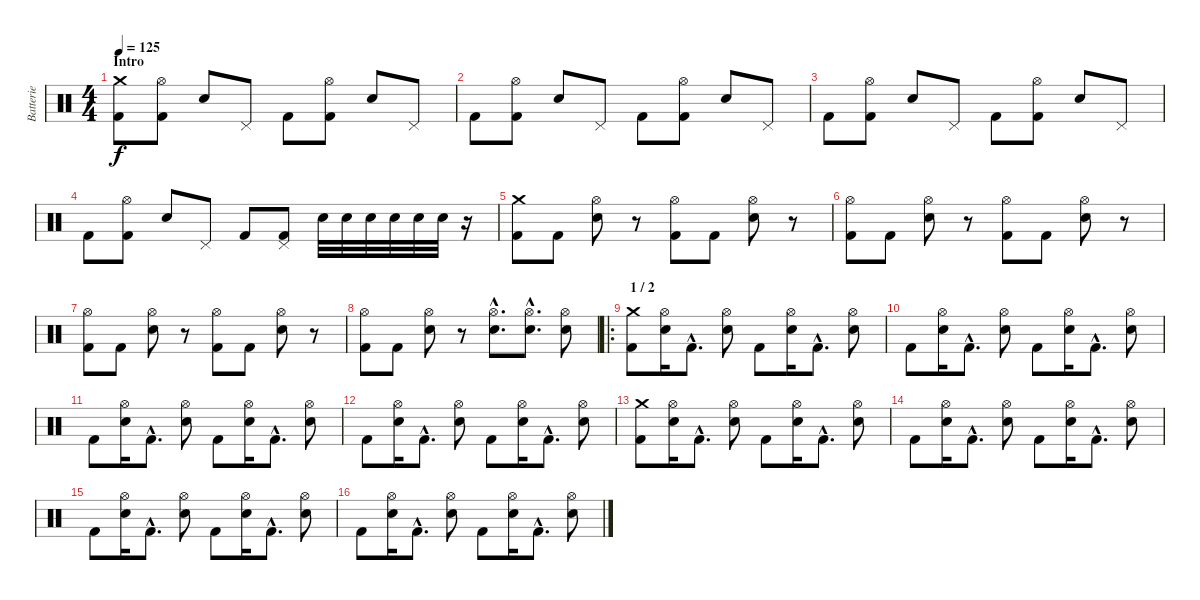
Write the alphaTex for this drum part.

\track ("Batterie" "Batterie") {instrument percussion}
\staff {score}
\articulation defaults
\ts (4 4)
\section ("" "Intro")
\tempo 125
\clef neutral
\ks c
("Crash medium (hit)" "Kick (hit) 2").8{dy f} ("Hi-Hat (open)" "Kick (hit) 2").8 "Electric Snare (hit)".8 "Pedal Hi-Hat (hit)".8 "Kick (hit) 2".8 ("Hi-Hat (open)" "Kick (hit) 2").8 "Electric Snare (hit)".8 "Pedal Hi-Hat (hit)".8 |
"Kick (hit) 2".8 ("Hi-Hat (open)" "Kick (hit) 2").8 "Electric Snare (hit)".8 "Pedal Hi-Hat (hit)".8 "Kick (hit) 2".8 ("Hi-Hat (open)" "Kick (hit) 2").8 "Electric Snare (hit)".8 "Pedal Hi-Hat (hit)".8 |
"Kick (hit) 2".8 ("Hi-Hat (open)" "Kick (hit) 2").8 "Electric Snare (hit)".8 "Pedal Hi-Hat (hit)".8 "Kick (hit) 2".8 ("Hi-Hat (open)" "Kick (hit) 2").8 "Electric Snare (hit)".8 "Pedal Hi-Hat (hit)".8 |
"Kick (hit) 2".8 ("Hi-Hat (open)" "Kick (hit) 2").8 "Electric Snare (hit)".8 "Pedal Hi-Hat (hit)".8 "Kick (hit) 2".8 ("Pedal Hi-Hat (hit)" "Kick (hit) 2").8 "Electric Snare (hit)".32 "Electric Snare (hit)".32 "Electric Snare (hit)".32 "Electric Snare (hit)".32 "Electric Snare (hit)".32 "Electric Snare (hit)".32 r.16 |
("Crash medium (hit)" "Kick (hit) 2").8 "Kick (hit) 2".8 ("Hi-Hat (open)" "Electric Snare (hit)").8 r.8 ("Hi-Hat (open)" "Kick (hit) 2").8 "Kick (hit) 2".8 ("Hi-Hat (open)" "Electric Snare (hit)").8 r.8 |
("Hi-Hat (open)" "Kick (hit) 2").8 "Kick (hit) 2".8 ("Hi-Hat (open)" "Electric Snare (hit)").8 r.8 ("Hi-Hat (open)" "Kick (hit) 2").8 "Kick (hit) 2".8 ("Hi-Hat (open)" "Electric Snare (hit)").8 r.8 |
("Hi-Hat (open)" "Kick (hit) 2").8 "Kick (hit) 2".8 ("Hi-Hat (open)" "Electric Snare (hit)").8 r.8 ("Hi-Hat (open)" "Kick (hit) 2").8 "Kick (hit) 2".8 ("Hi-Hat (open)" "Electric Snare (hit)").8 r.8 |
("Hi-Hat (open)" "Kick (hit) 2").8 "Kick (hit) 2".8 ("Hi-Hat (open)" "Electric Snare (hit)").8 r.8 ("Hi-Hat (open)"{hac} "Electric Snare (hit)"{hac}).8{d} ("Hi-Hat (open)"{hac} "Electric Snare (hit)"{hac}).8{d} ("Hi-Hat (open)" "Electric Snare (hit)").8 |
\ro
\section ("" " 1 / 2")
("Crash medium (hit)" "Kick (hit) 2").8 ("Hi-Hat (open)" "Electric Snare (hit)").16 "Kick (hit) 2"{hac}.8{d} ("Hi-Hat (open)" "Electric Snare (hit)").8 "Kick (hit) 2".8 ("Hi-Hat (open)" "Electric Snare (hit)").16 "Kick (hit) 2"{hac}.8{d} ("Hi-Hat (open)" "Electric Snare (hit)").8 |
"Kick (hit) 2".8 ("Hi-Hat (open)" "Electric Snare (hit)").16 "Kick (hit) 2"{hac}.8{d} ("Hi-Hat (open)" "Electric Snare (hit)").8 "Kick (hit) 2".8 ("Hi-Hat (open)" "Electric Snare (hit)").16 "Kick (hit) 2"{hac}.8{d} ("Hi-Hat (open)" "Electric Snare (hit)").8 |
"Kick (hit) 2".8 ("Hi-Hat (open)" "Electric Snare (hit)").16 "Kick (hit) 2"{hac}.8{d} ("Hi-Hat (open)" "Electric Snare (hit)").8 "Kick (hit) 2".8 ("Hi-Hat (open)" "Electric Snare (hit)").16 "Kick (hit) 2"{hac}.8{d} ("Hi-Hat (open)" "Electric Snare (hit)").8 |
"Kick (hit) 2".8 ("Hi-Hat (open)" "Electric Snare (hit)").16 "Kick (hit) 2"{hac}.8{d} ("Hi-Hat (open)" "Electric Snare (hit)").8 "Kick (hit) 2".8 ("Hi-Hat (open)" "Electric Snare (hit)").16 "Kick (hit) 2"{hac}.8{d} ("Hi-Hat (open)" "Electric Snare (hit)").8 |
("Crash medium (hit)" "Kick (hit) 2").8 ("Hi-Hat (open)" "Electric Snare (hit)").16 "Kick (hit) 2"{hac}.8{d} ("Hi-Hat (open)" "Electric Snare (hit)").8 "Kick (hit) 2".8 ("Hi-Hat (open)" "Electric Snare (hit)").16 "Kick (hit) 2"{hac}.8{d} ("Hi-Hat (open)" "Electric Snare (hit)").8 |
"Kick (hit) 2".8 ("Hi-Hat (open)" "Electric Snare (hit)").16 "Kick (hit) 2"{hac}.8{d} ("Hi-Hat (open)" "Electric Snare (hit)").8 "Kick (hit) 2".8 ("Hi-Hat (open)" "Electric Snare (hit)").16 "Kick (hit) 2"{hac}.8{d} ("Hi-Hat (open)" "Electric Snare (hit)").8 |
"Kick (hit) 2".8 ("Hi-Hat (open)" "Electric Snare (hit)").16 "Kick (hit) 2"{hac}.8{d} ("Hi-Hat (open)" "Electric Snare (hit)").8 "Kick (hit) 2".8 ("Hi-Hat (open)" "Electric Snare (hit)").16 "Kick (hit) 2"{hac}.8{d} ("Hi-Hat (open)" "Electric Snare (hit)").8 |
"Kick (hit) 2".8 ("Hi-Hat (open)" "Electric Snare (hit)").16 "Kick (hit) 2"{hac}.8{d} ("Hi-Hat (open)" "Electric Snare (hit)").8 "Kick (hit) 2".8 ("Hi-Hat (open)" "Electric Snare (hit)").16 "Kick (hit) 2"{hac}.8{d} ("Hi-Hat (open)" "Electric Snare (hit)").8
